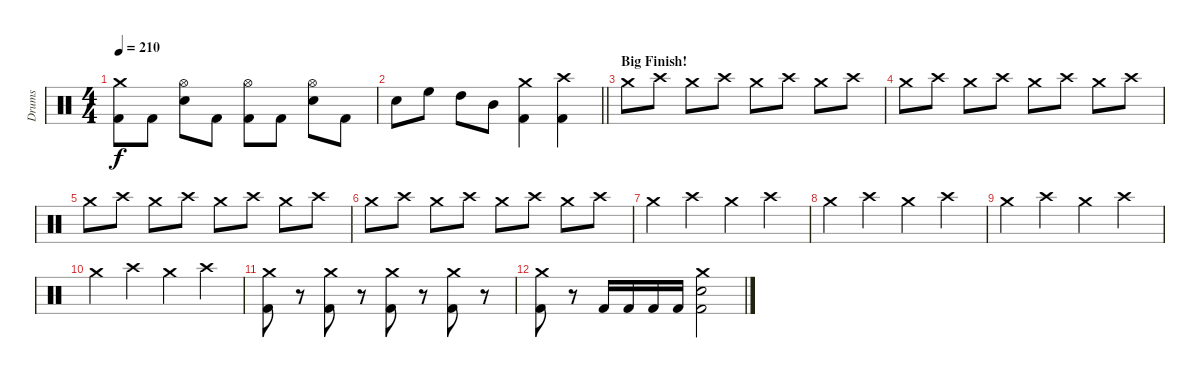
\track ("Drums" "Drums") {instrument percussion}
\staff {score}
\articulation defaults
\ts (4 4)
\tempo 210
\clef neutral
\ks c
("Crash medium (hit)" "Kick (hit) 2").8{dy f} "Kick (hit) 2".8 ("Hi-Hat (open)" "Electric Snare (hit)").8 "Kick (hit) 2".8 ("Hi-Hat (open)" "Kick (hit) 2").8 "Kick (hit) 2".8 ("Hi-Hat (open)" "Electric Snare (hit)").8 "Kick (hit) 2".8 |
\barLineRight lightlight "Electric Snare (hit)".8 "High Floor Tom (hit)".8 "High Tom (hit)".8 "Mid Tom (hit)".8
("Crash medium (hit)" "Kick (hit) 2").4 ("Crash high (hit)" "Kick (hit) 2").4 |
\section ("" "Big Finish!")
"Crash medium (hit)".8 "Crash high (hit)".8 "Crash medium (hit)".8 "Crash high (hit)".8 "Crash medium (hit)".8 "Crash high (hit)".8 "Crash medium (hit)".8 "Crash high (hit)".8 |
"Crash medium (hit)".8 "Crash high (hit)".8 "Crash medium (hit)".8 "Crash high (hit)".8 "Crash medium (hit)".8 "Crash high (hit)".8 "Crash medium (hit)".8 "Crash high (hit)".8 |
"Crash medium (hit)".8 "Crash high (hit)".8 "Crash medium (hit)".8 "Crash high (hit)".8 "Crash medium (hit)".8 "Crash high (hit)".8 "Crash medium (hit)".8 "Crash high (hit)".8 |
"Crash medium (hit)".8 "Crash high (hit)".8 "Crash medium (hit)".8 "Crash high (hit)".8 "Crash medium (hit)".8 "Crash high (hit)".8 "Crash medium (hit)".8 "Crash high (hit)".8 |
"Crash medium (hit)".4 "Crash high (hit)".4 "Crash medium (hit)".4 "Crash high (hit)".4 |
"Crash medium (hit)".4 "Crash high (hit)".4 "Crash medium (hit)".4 "Crash high (hit)".4 |
"Crash medium (hit)".4 "Crash high (hit)".4 "Crash medium (hit)".4 "Crash high (hit)".4 |
"Crash medium (hit)".4 "Crash high (hit)".4 "Crash medium (hit)".4 "Crash high (hit)".4 |
("Crash medium (hit)" "Kick (hit) 2").8 r.8 ("Crash medium (hit)" "Kick (hit) 2").8 r.8 ("Crash medium (hit)" "Kick (hit) 2").8 r.8 ("Crash medium (hit)" "Kick (hit) 2").8 r.8 |
("Crash medium (hit)" "Kick (hit) 2").8 r.8 "Kick (hit) 2".16 "Kick (hit) 2".16 "Kick (hit) 2".16 "Kick (hit) 2".16 ("Crash medium (hit)" "Electric Snare (hit)" "Kick (hit) 2").2
